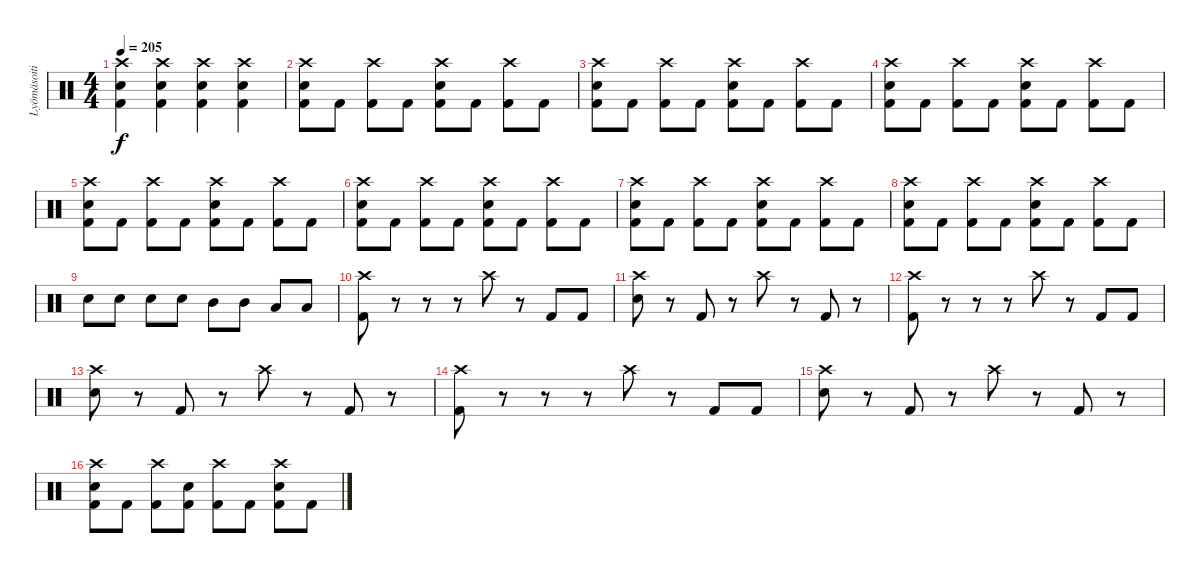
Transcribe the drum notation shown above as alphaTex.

\track ("Lyömäsoitin" "Lyömäsoiti") {instrument percussion}
\staff {score}
\articulation defaults
\ts (4 4)
\tempo 205
\clef neutral
\ks c
("Kick (hit) 2" "Electric Snare (hit)" "Crash high (hit)").4{dy f} ("Kick (hit) 2" "Electric Snare (hit)" "Crash high (hit)").4 ("Kick (hit) 2" "Electric Snare (hit)" "Crash high (hit)").4 ("Kick (hit) 2" "Electric Snare (hit)" "Crash high (hit)").4 |
("Kick (hit) 2" "Electric Snare (hit)" "Crash high (hit)").8 "Kick (hit) 2".8 ("Kick (hit) 2" "Crash high (hit)").8 "Kick (hit) 2".8 ("Kick (hit) 2" "Electric Snare (hit)" "Crash high (hit)").8 "Kick (hit) 2".8 ("Kick (hit) 2" "Crash high (hit)").8 "Kick (hit) 2".8 |
("Kick (hit) 2" "Electric Snare (hit)" "Crash high (hit)").8 "Kick (hit) 2".8 ("Kick (hit) 2" "Crash high (hit)").8 "Kick (hit) 2".8 ("Kick (hit) 2" "Electric Snare (hit)" "Crash high (hit)").8 "Kick (hit) 2".8 ("Kick (hit) 2" "Crash high (hit)").8 "Kick (hit) 2".8 |
("Kick (hit) 2" "Electric Snare (hit)" "Crash high (hit)").8 "Kick (hit) 2".8 ("Kick (hit) 2" "Crash high (hit)").8 "Kick (hit) 2".8 ("Kick (hit) 2" "Electric Snare (hit)" "Crash high (hit)").8 "Kick (hit) 2".8 ("Kick (hit) 2" "Crash high (hit)").8 "Kick (hit) 2".8 |
("Kick (hit) 2" "Electric Snare (hit)" "Crash high (hit)").8 "Kick (hit) 2".8 ("Kick (hit) 2" "Crash high (hit)").8 "Kick (hit) 2".8 ("Kick (hit) 2" "Electric Snare (hit)" "Crash high (hit)").8 "Kick (hit) 2".8 ("Kick (hit) 2" "Crash high (hit)").8 "Kick (hit) 2".8 |
("Kick (hit) 2" "Electric Snare (hit)" "Crash high (hit)").8 "Kick (hit) 2".8 ("Kick (hit) 2" "Crash high (hit)").8 "Kick (hit) 2".8 ("Kick (hit) 2" "Electric Snare (hit)" "Crash high (hit)").8 "Kick (hit) 2".8 ("Kick (hit) 2" "Crash high (hit)").8 "Kick (hit) 2".8 |
("Kick (hit) 2" "Electric Snare (hit)" "Crash high (hit)").8 "Kick (hit) 2".8 ("Kick (hit) 2" "Crash high (hit)").8 "Kick (hit) 2".8 ("Kick (hit) 2" "Electric Snare (hit)" "Crash high (hit)").8 "Kick (hit) 2".8 ("Kick (hit) 2" "Crash high (hit)").8 "Kick (hit) 2".8 |
("Kick (hit) 2" "Electric Snare (hit)" "Crash high (hit)").8 "Kick (hit) 2".8 ("Kick (hit) 2" "Crash high (hit)").8 "Kick (hit) 2".8 ("Kick (hit) 2" "Electric Snare (hit)" "Crash high (hit)").8 "Kick (hit) 2".8 ("Kick (hit) 2" "Crash high (hit)").8 "Kick (hit) 2".8 |
"Electric Snare (hit)".8 "Electric Snare (hit)".8 "Electric Snare (hit)".8 "Electric Snare (hit)".8 "Mid Tom (hit)".8 "Mid Tom (hit)".8 "Low Tom (hit)".8 "Low Tom (hit)".8 |
("Kick (hit) 2" "Crash high (hit)").8 r.8 r.8 r.8 "Crash high (hit)".8 r.8 "Kick (hit) 2".8 "Kick (hit) 2".8 |
("Electric Snare (hit)" "Crash high (hit)").8 r.8 "Kick (hit) 2".8 r.8 "Crash high (hit)".8 r.8 "Kick (hit) 2".8 r.8 |
("Kick (hit) 2" "Crash high (hit)").8 r.8 r.8 r.8 "Crash high (hit)".8 r.8 "Kick (hit) 2".8 "Kick (hit) 2".8 |
("Electric Snare (hit)" "Crash high (hit)").8 r.8 "Kick (hit) 2".8 r.8 "Crash high (hit)".8 r.8 "Kick (hit) 2".8 r.8 |
("Kick (hit) 2" "Crash high (hit)").8 r.8 r.8 r.8 "Crash high (hit)".8 r.8 "Kick (hit) 2".8 "Kick (hit) 2".8 |
("Electric Snare (hit)" "Crash high (hit)").8 r.8 "Kick (hit) 2".8 r.8 "Crash high (hit)".8 r.8 "Kick (hit) 2".8 r.8 |
("Kick (hit) 2" "Electric Snare (hit)" "Crash high (hit)").8 "Kick (hit) 2".8 ("Kick (hit) 2" "Crash high (hit)").8 ("Kick (hit) 2" "Electric Snare (hit)").8 ("Kick (hit) 2" "Crash high (hit)").8 "Kick (hit) 2".8 ("Kick (hit) 2" "Electric Snare (hit)" "Crash high (hit)").8 "Kick (hit) 2".8
